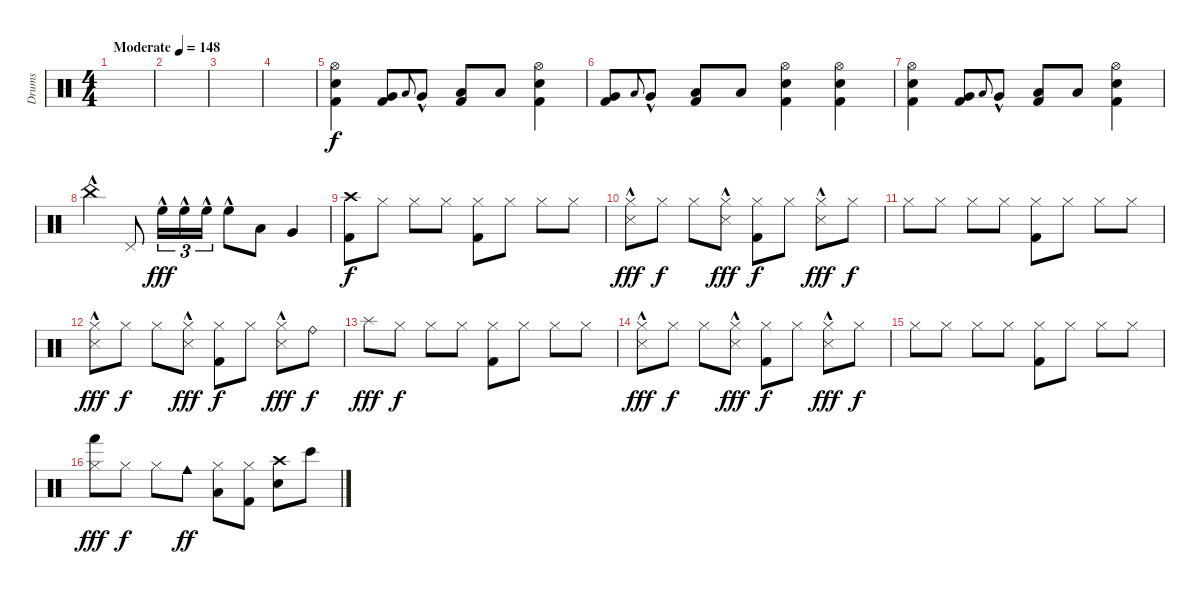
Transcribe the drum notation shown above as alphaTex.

\track ("Drums" "Drums") {instrument percussion}
\staff {score}
\articulation defaults
\ts (4 4)
\tempo (148 "Moderate")
\clef neutral
\ks c
|
|
|
|
("Hi-Hat (open)" "Electric Snare (hit)" "Kick (hit) 2").4 ("Very Low Tom (hit)" "Kick (hit) 2").8 "Low Tom (hit)".8{gr onbeat} "Very Low Tom (hit)"{hac}.8 ("Low Floor Tom (hit)" "Kick (hit) 2").8 "Low Tom (hit)".8 ("Hi-Hat (open)" "Electric Snare (hit)" "Kick (hit) 2").4 |
("Very Low Tom (hit)" "Kick (hit) 2").8 "Low Tom (hit)".8{gr onbeat} "Very Low Tom (hit)"{hac}.8 ("Low Floor Tom (hit)" "Kick (hit) 2").8 "Low Tom (hit)".8 ("Hi-Hat (open)" "Electric Snare (hit)" "Kick (hit) 2").4 ("Hi-Hat (open)" "Electric Snare (hit)" "Kick (hit) 2").4 |
("Hi-Hat (open)" "Electric Snare (hit)" "Kick (hit) 2").4 ("Very Low Tom (hit)" "Kick (hit) 2").8 "Low Tom (hit)".8{gr onbeat} "Very Low Tom (hit)"{hac}.8 ("Low Floor Tom (hit)" "Kick (hit) 2").8 "Low Tom (hit)".8 ("Hi-Hat (open)" "Electric Snare (hit)" "Kick (hit) 2").4 |
"China (hit)"{hac}.4 "Pedal Hi-Hat (hit)".8{dy f} "High Floor Tom (hit)"{hac}.16{tu (3 2) dy fff} "High Floor Tom (hit)"{hac}.16{tu (3 2)} "High Floor Tom (hit)"{hac}.16{tu (3 2)} "High Floor Tom (hit)"{hac}.8 "Low Tom (hit)".8 "Very Low Tom (hit)".4 |
("Crash high (hit)" "Kick (hit) 2").8{dy f} "Hi-Hat (closed)".8 "Hi-Hat (closed)".8 "Hi-Hat (closed)".8 ("Hi-Hat (closed)" "Kick (hit) 2").8 "Hi-Hat (closed)".8 "Hi-Hat (closed)".8 "Hi-Hat (closed)".8 |
("Hi-Hat (closed)" "Snare (side stick) 3"{hac}).8{dy fff} "Hi-Hat (closed)".8{dy f} "Hi-Hat (closed)".8 ("Hi-Hat (closed)" "Snare (side stick) 3"{hac}).8{dy fff} ("Hi-Hat (closed)" "Kick (hit) 2").8{dy f} "Hi-Hat (closed)".8 ("Hi-Hat (closed)" "Snare (side stick) 3"{hac}).8{dy fff} "Hi-Hat (closed)".8{dy f} |
"Hi-Hat (closed)".8 "Hi-Hat (closed)".8 "Hi-Hat (closed)".8 "Hi-Hat (closed)".8 ("Hi-Hat (closed)" "Kick (hit) 2").8 "Hi-Hat (closed)".8 "Hi-Hat (closed)".8 "Hi-Hat (closed)".8 |
("Hi-Hat (closed)" "Snare (side stick) 3"{hac}).8{dy fff} "Hi-Hat (closed)".8{dy f} "Hi-Hat (closed)".8 ("Hi-Hat (closed)" "Snare (side stick) 3"{hac}).8{dy fff} ("Hi-Hat (closed)" "Kick (hit) 2").8{dy f} "Hi-Hat (closed)".8 ("Hi-Hat (closed)" "Snare (side stick) 3"{hac}).8{dy fff} "Ride (bell)".8{dy f} |
"Splash (hit)".8{dy fff} "Hi-Hat (closed)".8{dy f} "Hi-Hat (closed)".8 "Hi-Hat (closed)".8 ("Hi-Hat (closed)" "Kick (hit) 2").8 "Hi-Hat (closed)".8 "Hi-Hat (closed)".8 "Hi-Hat (closed)".8 |
("Hi-Hat (closed)" "Snare (side stick) 3"{hac}).8{dy fff} "Hi-Hat (closed)".8{dy f} "Hi-Hat (closed)".8 ("Hi-Hat (closed)" "Snare (side stick) 3"{hac}).8{dy fff} ("Hi-Hat (closed)" "Kick (hit) 2").8{dy f} "Hi-Hat (closed)".8 ("Hi-Hat (closed)" "Snare (side stick) 3"{hac}).8{dy fff} "Hi-Hat (closed)".8{dy f} |
"Hi-Hat (closed)".8 "Hi-Hat (closed)".8 "Hi-Hat (closed)".8 "Hi-Hat (closed)".8 ("Hi-Hat (closed)" "Kick (hit) 2").8 "Hi-Hat (closed)".8 "Hi-Hat (closed)".8 "Hi-Hat (closed)".8 |
("Hi-Hat (closed)" "Hand (hit)").8{dy fff} "Hi-Hat (closed)".8{dy f} "Hi-Hat (closed)".8 "Cowbell medium (hit)".8{dy ff} ("Hi-Hat (closed)" "Low Tom (hit)").8 ("Hi-Hat (closed)" "Kick (hit) 2").8 ("Crash high (hit)" "Electric Snare (hit)").8 "Bongo High (hit)".8
